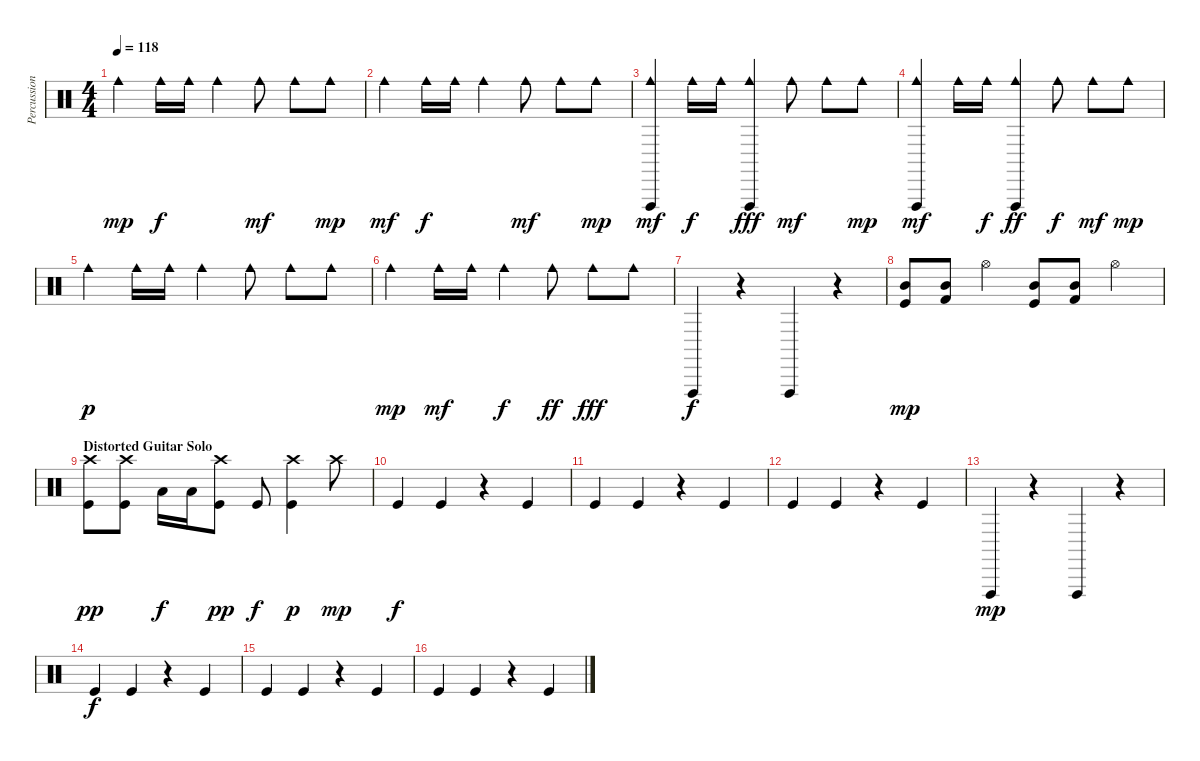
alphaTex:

\track ("Percussion" "Percussion") {instrument percussion}
\staff {score}
\articulation defaults
\ts (4 4)
\tempo 118
\clef neutral
\ks c "Cowbell medium (hit)".4{dy mp} "Cowbell medium (hit)".16{dy f} "Cowbell medium (hit)".16 "Cowbell medium (hit)".4 "Cowbell medium (hit)".8{dy mf} "Cowbell medium (hit)".8 "Cowbell medium (hit)".8{dy mp}
|
"Cowbell medium (hit)".4{dy mf} "Cowbell medium (hit)".16{dy f} "Cowbell medium (hit)".16 "Cowbell medium (hit)".4 "Cowbell medium (hit)".8{dy mf} "Cowbell medium (hit)".8 "Cowbell medium (hit)".8{dy mp} |
("Vibraslap (hit)" "Cowbell medium (hit)").4{dy mf} "Cowbell medium (hit)".16{dy f} "Cowbell medium (hit)".16 ("Vibraslap (hit)" "Cowbell medium (hit)").4{dy fff} "Cowbell medium (hit)".8{dy mf} "Cowbell medium (hit)".8 "Cowbell medium (hit)".8{dy mp} |
("Vibraslap (hit)" "Cowbell medium (hit)").4{dy mf} "Cowbell medium (hit)".16 "Cowbell medium (hit)".16{dy f} ("Vibraslap (hit)" "Cowbell medium (hit)").4{dy ff} "Cowbell medium (hit)".8{dy f} "Cowbell medium (hit)".8{dy mf} "Cowbell medium (hit)".8{dy mp} |
"Cowbell medium (hit)".4{dy p} "Cowbell medium (hit)".16 "Cowbell medium (hit)".16 "Cowbell medium (hit)".4 "Cowbell medium (hit)".8 "Cowbell medium (hit)".8 "Cowbell medium (hit)".8 |
"Cowbell medium (hit)".4{dy mp} "Cowbell medium (hit)".16{dy mf} "Cowbell medium (hit)".16 "Cowbell medium (hit)".4{dy f} "Cowbell medium (hit)".8{dy ff} "Cowbell medium (hit)".8{dy fff} "Cowbell medium (hit)".8 |
"Vibraslap (hit)".4{dy f} r.4 "Vibraslap (hit)".4 r.4 |
("Mid Tom (hit)" "Kick (hit)").8{dy mp} ("Mid Tom (hit)" "Kick (hit) 2").8 "Hi-Hat (open)".4 ("Mid Tom (hit)" "Kick (hit)").8 ("Mid Tom (hit)" "Kick (hit) 2").8 "Hi-Hat (open)".4 |
\section ("" "Distorted Guitar Solo")
("Kick (hit)" "Crash high (hit)").8{dy pp} ("Kick (hit)" "Crash high (hit)").8 "Low Tom (hit)".16{dy f} "Low Tom (hit)".16 ("Kick (hit)" "Crash high (hit)").8{dy pp} "Kick (hit)".8{dy f} ("Kick (hit)" "Crash high (hit)").4{dy p} "Crash high (hit)".8{dy mp} |
"Kick (hit)".4{dy f} "Kick (hit)".4 r.4 "Kick (hit)".4 |
"Kick (hit)".4 "Kick (hit)".4 r.4 "Kick (hit)".4 |
"Kick (hit)".4 "Kick (hit)".4 r.4 "Kick (hit)".4 |
"Vibraslap (hit)".4{dy mp} r.4 "Vibraslap (hit)".4 r.4 |
"Kick (hit)".4{dy f} "Kick (hit)".4 r.4 "Kick (hit)".4 |
"Kick (hit)".4 "Kick (hit)".4 r.4 "Kick (hit)".4 |
"Kick (hit)".4 "Kick (hit)".4 r.4 "Kick (hit)".4
